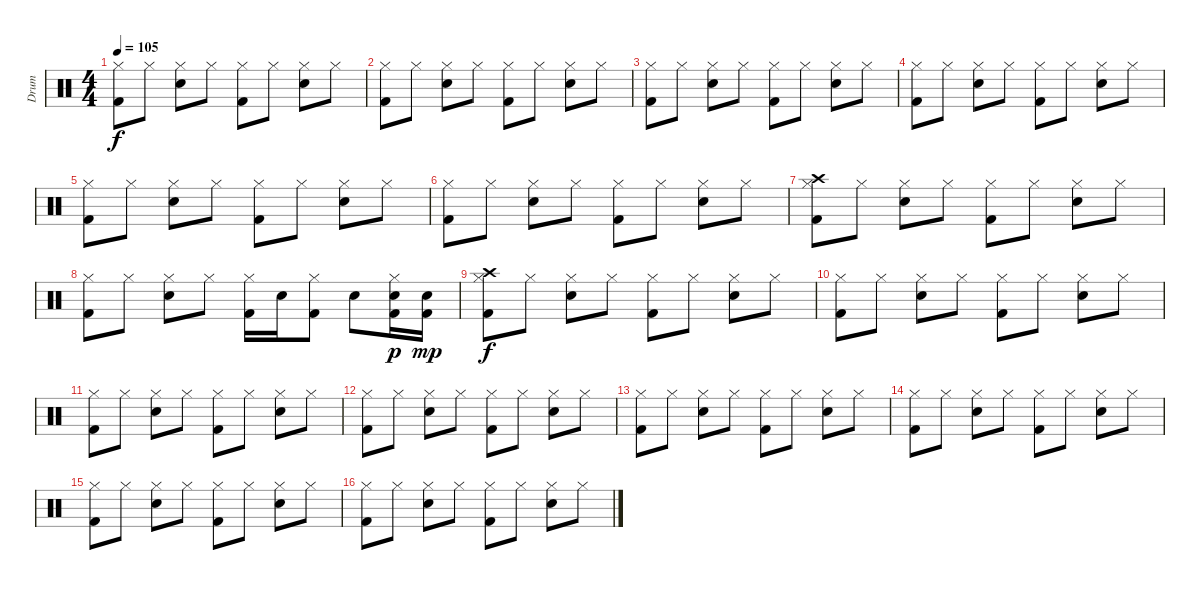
\track ("Drum" "Drum") {instrument percussion}
\staff {score}
\articulation defaults
\ts (4 4)
\tempo 105
\clef neutral
\ks c
("Hi-Hat (closed)" "Kick (hit) 2").8{dy f} "Hi-Hat (closed)".8 ("Electric Snare (hit)" "Hi-Hat (closed)").8 "Hi-Hat (closed)".8 ("Hi-Hat (closed)" "Kick (hit) 2").8 "Hi-Hat (closed)".8 ("Electric Snare (hit)" "Hi-Hat (closed)").8 "Hi-Hat (closed)".8 |
("Hi-Hat (closed)" "Kick (hit) 2").8 "Hi-Hat (closed)".8 ("Electric Snare (hit)" "Hi-Hat (closed)").8 "Hi-Hat (closed)".8 ("Hi-Hat (closed)" "Kick (hit) 2").8 "Hi-Hat (closed)".8 ("Electric Snare (hit)" "Hi-Hat (closed)").8 "Hi-Hat (closed)".8 |
("Hi-Hat (closed)" "Kick (hit) 2").8 "Hi-Hat (closed)".8 ("Electric Snare (hit)" "Hi-Hat (closed)").8 "Hi-Hat (closed)".8 ("Hi-Hat (closed)" "Kick (hit) 2").8 "Hi-Hat (closed)".8 ("Electric Snare (hit)" "Hi-Hat (closed)").8 "Hi-Hat (closed)".8 |
("Hi-Hat (closed)" "Kick (hit) 2").8 "Hi-Hat (closed)".8 ("Electric Snare (hit)" "Hi-Hat (closed)").8 "Hi-Hat (closed)".8 ("Hi-Hat (closed)" "Kick (hit) 2").8 "Hi-Hat (closed)".8 ("Electric Snare (hit)" "Hi-Hat (closed)").8 "Hi-Hat (closed)".8 |
("Hi-Hat (closed)" "Kick (hit) 2").8 "Hi-Hat (closed)".8 ("Electric Snare (hit)" "Hi-Hat (closed)").8 "Hi-Hat (closed)".8 ("Hi-Hat (closed)" "Kick (hit) 2").8 "Hi-Hat (closed)".8 ("Electric Snare (hit)" "Hi-Hat (closed)").8 "Hi-Hat (closed)".8 |
("Hi-Hat (closed)" "Kick (hit) 2").8 "Hi-Hat (closed)".8 ("Electric Snare (hit)" "Hi-Hat (closed)").8 "Hi-Hat (closed)".8 ("Hi-Hat (closed)" "Kick (hit) 2").8 "Hi-Hat (closed)".8 ("Electric Snare (hit)" "Hi-Hat (closed)").8 "Hi-Hat (closed)".8 |
("Crash high (hit)" "Hi-Hat (closed)" "Kick (hit) 2").8 "Hi-Hat (closed)".8 ("Electric Snare (hit)" "Hi-Hat (closed)").8 "Hi-Hat (closed)".8 ("Hi-Hat (closed)" "Kick (hit) 2").8 "Hi-Hat (closed)".8 ("Electric Snare (hit)" "Hi-Hat (closed)").8 "Hi-Hat (closed)".8 |
("Hi-Hat (closed)" "Kick (hit) 2").8 "Hi-Hat (closed)".8 ("Electric Snare (hit)" "Hi-Hat (closed)").8 "Hi-Hat (closed)".8 ("Hi-Hat (closed)" "Kick (hit) 2").16 "Electric Snare (hit)".16 ("Hi-Hat (closed)" "Kick (hit) 2").8 "Electric Snare (hit)".8 ("Electric Snare (hit)" "Hi-Hat (closed)" "Kick (hit) 2").16{dy p} ("Electric Snare (hit)" "Kick (hit) 2").16{dy mp} |
("Crash high (hit)" "Hi-Hat (closed)" "Kick (hit) 2").8{dy f} "Hi-Hat (closed)".8 ("Electric Snare (hit)" "Hi-Hat (closed)").8 "Hi-Hat (closed)".8 ("Hi-Hat (closed)" "Kick (hit) 2").8 "Hi-Hat (closed)".8 ("Electric Snare (hit)" "Hi-Hat (closed)").8 "Hi-Hat (closed)".8 |
("Hi-Hat (closed)" "Kick (hit) 2").8 "Hi-Hat (closed)".8 ("Electric Snare (hit)" "Hi-Hat (closed)").8 "Hi-Hat (closed)".8 ("Hi-Hat (closed)" "Kick (hit) 2").8 "Hi-Hat (closed)".8 ("Electric Snare (hit)" "Hi-Hat (closed)").8 "Hi-Hat (closed)".8 |
("Hi-Hat (closed)" "Kick (hit) 2").8 "Hi-Hat (closed)".8 ("Electric Snare (hit)" "Hi-Hat (closed)").8 "Hi-Hat (closed)".8 ("Hi-Hat (closed)" "Kick (hit) 2").8 "Hi-Hat (closed)".8 ("Electric Snare (hit)" "Hi-Hat (closed)").8 "Hi-Hat (closed)".8 |
("Hi-Hat (closed)" "Kick (hit) 2").8 "Hi-Hat (closed)".8 ("Electric Snare (hit)" "Hi-Hat (closed)").8 "Hi-Hat (closed)".8 ("Hi-Hat (closed)" "Kick (hit) 2").8 "Hi-Hat (closed)".8 ("Electric Snare (hit)" "Hi-Hat (closed)").8 "Hi-Hat (closed)".8 |
("Hi-Hat (closed)" "Kick (hit) 2").8 "Hi-Hat (closed)".8 ("Electric Snare (hit)" "Hi-Hat (closed)").8 "Hi-Hat (closed)".8 ("Hi-Hat (closed)" "Kick (hit) 2").8 "Hi-Hat (closed)".8 ("Electric Snare (hit)" "Hi-Hat (closed)").8 "Hi-Hat (closed)".8 |
("Hi-Hat (closed)" "Kick (hit) 2").8 "Hi-Hat (closed)".8 ("Electric Snare (hit)" "Hi-Hat (closed)").8 "Hi-Hat (closed)".8 ("Hi-Hat (closed)" "Kick (hit) 2").8 "Hi-Hat (closed)".8 ("Electric Snare (hit)" "Hi-Hat (closed)").8 "Hi-Hat (closed)".8 |
("Hi-Hat (closed)" "Kick (hit) 2").8 "Hi-Hat (closed)".8 ("Electric Snare (hit)" "Hi-Hat (closed)").8 "Hi-Hat (closed)".8 ("Hi-Hat (closed)" "Kick (hit) 2").8 "Hi-Hat (closed)".8 ("Electric Snare (hit)" "Hi-Hat (closed)").8 "Hi-Hat (closed)".8 |
("Hi-Hat (closed)" "Kick (hit) 2").8 "Hi-Hat (closed)".8 ("Electric Snare (hit)" "Hi-Hat (closed)").8 "Hi-Hat (closed)".8 ("Hi-Hat (closed)" "Kick (hit) 2").8 "Hi-Hat (closed)".8 ("Electric Snare (hit)" "Hi-Hat (closed)").8 "Hi-Hat (closed)".8
